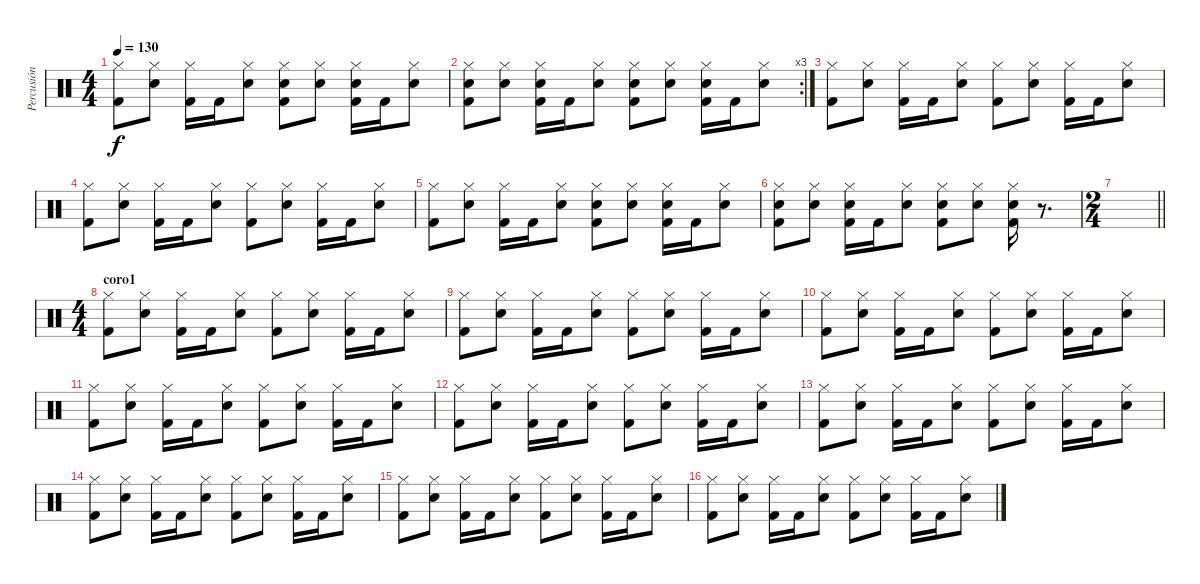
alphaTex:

\track ("Percusión" "Percusión") {instrument percussion}
\staff {score}
\articulation defaults
\ts (4 4)
\tempo 130
\clef neutral
\ks c
("Hi-Hat (closed)" "Kick (hit) 2").8{dy f} ("Hi-Hat (closed)" "Electric Snare (hit)").8 ("Hi-Hat (closed)" "Kick (hit) 2").16 "Kick (hit) 2".16 ("Hi-Hat (closed)" "Electric Snare (hit)").8 ("Hi-Hat (closed)" "Electric Snare (hit)" "Kick (hit) 2").8 ("Hi-Hat (closed)" "Electric Snare (hit)").8 ("Hi-Hat (closed)" "Electric Snare (hit)" "Kick (hit) 2").16 "Kick (hit) 2".16 ("Hi-Hat (closed)" "Electric Snare (hit)").8 |
\rc 3
("Hi-Hat (closed)" "Electric Snare (hit)" "Kick (hit) 2").8 ("Hi-Hat (closed)" "Electric Snare (hit)").8 ("Hi-Hat (closed)" "Electric Snare (hit)" "Kick (hit) 2").16 "Kick (hit) 2".16 ("Hi-Hat (closed)" "Electric Snare (hit)").8 ("Hi-Hat (closed)" "Electric Snare (hit)" "Kick (hit) 2").8 ("Hi-Hat (closed)" "Electric Snare (hit)").8 ("Hi-Hat (closed)" "Electric Snare (hit)" "Kick (hit) 2").16 "Kick (hit) 2".16 ("Hi-Hat (closed)" "Electric Snare (hit)").8 |
("Hi-Hat (closed)" "Kick (hit) 2").8 ("Hi-Hat (closed)" "Electric Snare (hit)").8 ("Hi-Hat (closed)" "Kick (hit) 2").16 "Kick (hit) 2".16 ("Hi-Hat (closed)" "Electric Snare (hit)").8 ("Hi-Hat (closed)" "Kick (hit) 2").8 ("Hi-Hat (closed)" "Electric Snare (hit)").8 ("Hi-Hat (closed)" "Kick (hit) 2").16 "Kick (hit) 2".16 ("Hi-Hat (closed)" "Electric Snare (hit)").8 |
("Hi-Hat (closed)" "Kick (hit) 2").8 ("Hi-Hat (closed)" "Electric Snare (hit)").8 ("Hi-Hat (closed)" "Kick (hit) 2").16 "Kick (hit) 2".16 ("Hi-Hat (closed)" "Electric Snare (hit)").8 ("Hi-Hat (closed)" "Kick (hit) 2").8 ("Hi-Hat (closed)" "Electric Snare (hit)").8 ("Hi-Hat (closed)" "Kick (hit) 2").16 "Kick (hit) 2".16 ("Hi-Hat (closed)" "Electric Snare (hit)").8 |
("Hi-Hat (closed)" "Kick (hit) 2").8 ("Hi-Hat (closed)" "Electric Snare (hit)").8 ("Hi-Hat (closed)" "Kick (hit) 2").16 "Kick (hit) 2".16 ("Hi-Hat (closed)" "Electric Snare (hit)").8 ("Hi-Hat (closed)" "Electric Snare (hit)" "Kick (hit) 2").8 ("Hi-Hat (closed)" "Electric Snare (hit)").8 ("Hi-Hat (closed)" "Electric Snare (hit)" "Kick (hit) 2").16 "Kick (hit) 2".16 ("Hi-Hat (closed)" "Electric Snare (hit)").8 |
("Hi-Hat (closed)" "Electric Snare (hit)" "Kick (hit) 2").8 ("Hi-Hat (closed)" "Electric Snare (hit)").8 ("Hi-Hat (closed)" "Electric Snare (hit)" "Kick (hit) 2").16 "Kick (hit) 2".16 ("Hi-Hat (closed)" "Electric Snare (hit)").8 ("Hi-Hat (closed)" "Electric Snare (hit)" "Kick (hit) 2").8 ("Hi-Hat (closed)" "Electric Snare (hit)").8 ("Hi-Hat (closed)" "Electric Snare (hit)" "Kick (hit) 2").16 r.8{d} |
\ts (2 4)
\barLineRight lightlight
|
\ts (4 4)
\section ("" "coro1")
("Hi-Hat (closed)" "Kick (hit) 2").8 ("Hi-Hat (closed)" "Electric Snare (hit)").8 ("Hi-Hat (closed)" "Kick (hit) 2").16 "Kick (hit) 2".16 ("Hi-Hat (closed)" "Electric Snare (hit)").8 ("Hi-Hat (closed)" "Kick (hit) 2").8 ("Hi-Hat (closed)" "Electric Snare (hit)").8 ("Hi-Hat (closed)" "Kick (hit) 2").16 "Kick (hit) 2".16 ("Hi-Hat (closed)" "Electric Snare (hit)").8 |
("Hi-Hat (closed)" "Kick (hit) 2").8 ("Hi-Hat (closed)" "Electric Snare (hit)").8 ("Hi-Hat (closed)" "Kick (hit) 2").16 "Kick (hit) 2".16 ("Hi-Hat (closed)" "Electric Snare (hit)").8 ("Hi-Hat (closed)" "Kick (hit) 2").8 ("Hi-Hat (closed)" "Electric Snare (hit)").8 ("Hi-Hat (closed)" "Kick (hit) 2").16 "Kick (hit) 2".16 ("Hi-Hat (closed)" "Electric Snare (hit)").8 |
("Hi-Hat (closed)" "Kick (hit) 2").8 ("Hi-Hat (closed)" "Electric Snare (hit)").8 ("Hi-Hat (closed)" "Kick (hit) 2").16 "Kick (hit) 2".16 ("Hi-Hat (closed)" "Electric Snare (hit)").8 ("Hi-Hat (closed)" "Kick (hit) 2").8 ("Hi-Hat (closed)" "Electric Snare (hit)").8 ("Hi-Hat (closed)" "Kick (hit) 2").16 "Kick (hit) 2".16 ("Hi-Hat (closed)" "Electric Snare (hit)").8 |
("Hi-Hat (closed)" "Kick (hit) 2").8 ("Hi-Hat (closed)" "Electric Snare (hit)").8 ("Hi-Hat (closed)" "Kick (hit) 2").16 "Kick (hit) 2".16 ("Hi-Hat (closed)" "Electric Snare (hit)").8 ("Hi-Hat (closed)" "Kick (hit) 2").8 ("Hi-Hat (closed)" "Electric Snare (hit)").8 ("Hi-Hat (closed)" "Kick (hit) 2").16 "Kick (hit) 2".16 ("Hi-Hat (closed)" "Electric Snare (hit)").8 |
("Hi-Hat (closed)" "Kick (hit) 2").8 ("Hi-Hat (closed)" "Electric Snare (hit)").8 ("Hi-Hat (closed)" "Kick (hit) 2").16 "Kick (hit) 2".16 ("Hi-Hat (closed)" "Electric Snare (hit)").8 ("Hi-Hat (closed)" "Kick (hit) 2").8 ("Hi-Hat (closed)" "Electric Snare (hit)").8 ("Hi-Hat (closed)" "Kick (hit) 2").16 "Kick (hit) 2".16 ("Hi-Hat (closed)" "Electric Snare (hit)").8 |
("Hi-Hat (closed)" "Kick (hit) 2").8 ("Hi-Hat (closed)" "Electric Snare (hit)").8 ("Hi-Hat (closed)" "Kick (hit) 2").16 "Kick (hit) 2".16 ("Hi-Hat (closed)" "Electric Snare (hit)").8 ("Hi-Hat (closed)" "Kick (hit) 2").8 ("Hi-Hat (closed)" "Electric Snare (hit)").8 ("Hi-Hat (closed)" "Kick (hit) 2").16 "Kick (hit) 2".16 ("Hi-Hat (closed)" "Electric Snare (hit)").8 |
("Hi-Hat (closed)" "Kick (hit) 2").8 ("Hi-Hat (closed)" "Electric Snare (hit)").8 ("Hi-Hat (closed)" "Kick (hit) 2").16 "Kick (hit) 2".16 ("Hi-Hat (closed)" "Electric Snare (hit)").8 ("Hi-Hat (closed)" "Kick (hit) 2").8 ("Hi-Hat (closed)" "Electric Snare (hit)").8 ("Hi-Hat (closed)" "Kick (hit) 2").16 "Kick (hit) 2".16 ("Hi-Hat (closed)" "Electric Snare (hit)").8 |
("Hi-Hat (closed)" "Kick (hit) 2").8 ("Hi-Hat (closed)" "Electric Snare (hit)").8 ("Hi-Hat (closed)" "Kick (hit) 2").16 "Kick (hit) 2".16 ("Hi-Hat (closed)" "Electric Snare (hit)").8 ("Hi-Hat (closed)" "Kick (hit) 2").8 ("Hi-Hat (closed)" "Electric Snare (hit)").8 ("Hi-Hat (closed)" "Kick (hit) 2").16 "Kick (hit) 2".16 ("Hi-Hat (closed)" "Electric Snare (hit)").8 |
("Hi-Hat (closed)" "Kick (hit) 2").8 ("Hi-Hat (closed)" "Electric Snare (hit)").8 ("Hi-Hat (closed)" "Kick (hit) 2").16 "Kick (hit) 2".16 ("Hi-Hat (closed)" "Electric Snare (hit)").8 ("Hi-Hat (closed)" "Kick (hit) 2").8 ("Hi-Hat (closed)" "Electric Snare (hit)").8 ("Hi-Hat (closed)" "Kick (hit) 2").16 "Kick (hit) 2".16 ("Hi-Hat (closed)" "Electric Snare (hit)").8
